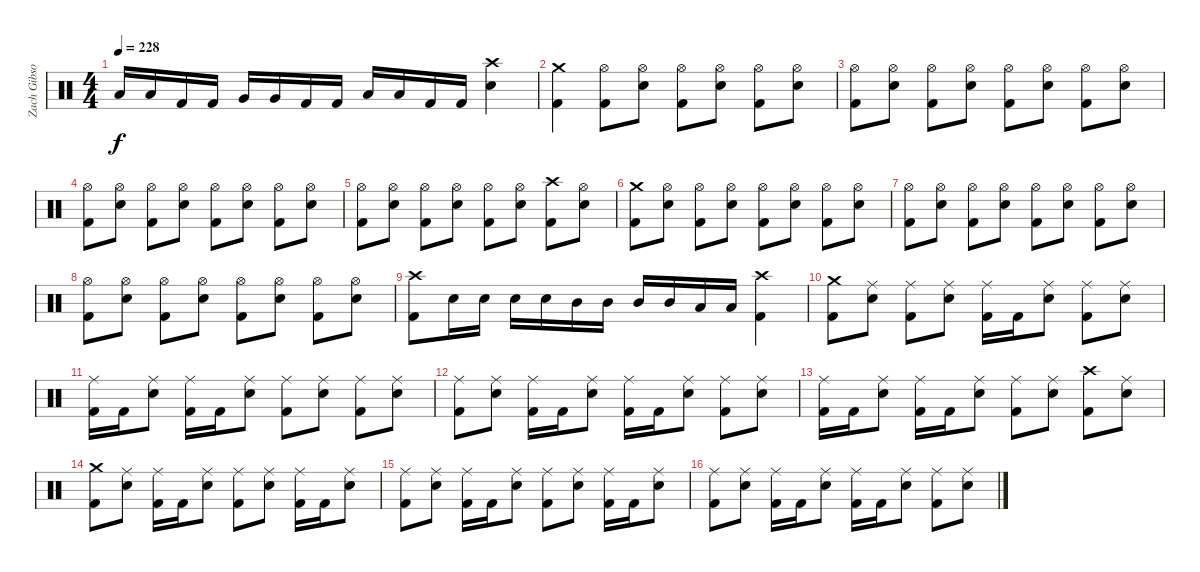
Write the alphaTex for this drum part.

\track ("Zach Gibson (Ex-Drums)" "Zach Gibso") {instrument percussion}
\staff {score}
\articulation defaults
\ts (4 4)
\tempo 228
\clef neutral
\ks c "Low Tom (hit)".16{dy f} "Low Tom (hit)".16 "Kick (hit) 2".16 "Kick (hit) 2".16 "Very Low Tom (hit)".16 "Very Low Tom (hit)".16 "Kick (hit) 2".16 "Kick (hit) 2".16 "Low Floor Tom (hit)".16 "Low Floor Tom (hit)".16 "Kick (hit) 2".16 "Kick (hit) 2".16
("Crash high (hit)" "Snare (hit) 2").4 |
("Crash medium (hit)" "Kick (hit) 2").4 ("Hi-Hat (open)" "Kick (hit) 2").8 ("Hi-Hat (open)" "Snare (hit) 2").8 ("Hi-Hat (open)" "Kick (hit) 2").8 ("Hi-Hat (open)" "Snare (hit) 2").8 ("Hi-Hat (open)" "Kick (hit) 2").8 ("Hi-Hat (open)" "Snare (hit) 2").8 |
("Hi-Hat (open)" "Kick (hit) 2").8 ("Hi-Hat (open)" "Snare (hit) 2").8 ("Hi-Hat (open)" "Kick (hit) 2").8 ("Hi-Hat (open)" "Snare (hit) 2").8 ("Hi-Hat (open)" "Kick (hit) 2").8 ("Hi-Hat (open)" "Snare (hit) 2").8 ("Hi-Hat (open)" "Kick (hit) 2").8 ("Hi-Hat (open)" "Snare (hit) 2").8 |
("Hi-Hat (open)" "Kick (hit) 2").8 ("Hi-Hat (open)" "Snare (hit) 2").8 ("Hi-Hat (open)" "Kick (hit) 2").8 ("Hi-Hat (open)" "Snare (hit) 2").8 ("Hi-Hat (open)" "Kick (hit) 2").8 ("Hi-Hat (open)" "Snare (hit) 2").8 ("Hi-Hat (open)" "Kick (hit) 2").8 ("Hi-Hat (open)" "Snare (hit) 2").8 |
("Hi-Hat (open)" "Kick (hit) 2").8 ("Hi-Hat (open)" "Snare (hit) 2").8 ("Hi-Hat (open)" "Kick (hit) 2").8 ("Hi-Hat (open)" "Snare (hit) 2").8 ("Hi-Hat (open)" "Kick (hit) 2").8 ("Hi-Hat (open)" "Snare (hit) 2").8 ("Crash high (hit)" "Kick (hit) 2").8 ("Hi-Hat (open)" "Snare (hit) 2").8 |
("Crash medium (hit)" "Kick (hit) 2").8 ("Hi-Hat (open)" "Snare (hit) 2").8 ("Hi-Hat (open)" "Kick (hit) 2").8 ("Hi-Hat (open)" "Snare (hit) 2").8 ("Hi-Hat (open)" "Kick (hit) 2").8 ("Hi-Hat (open)" "Snare (hit) 2").8 ("Hi-Hat (open)" "Kick (hit) 2").8 ("Hi-Hat (open)" "Snare (hit) 2").8 |
("Hi-Hat (open)" "Kick (hit) 2").8 ("Hi-Hat (open)" "Snare (hit) 2").8 ("Hi-Hat (open)" "Kick (hit) 2").8 ("Hi-Hat (open)" "Snare (hit) 2").8 ("Hi-Hat (open)" "Kick (hit) 2").8 ("Hi-Hat (open)" "Snare (hit) 2").8 ("Hi-Hat (open)" "Kick (hit) 2").8 ("Hi-Hat (open)" "Snare (hit) 2").8 |
("Hi-Hat (open)" "Kick (hit) 2").8 ("Hi-Hat (open)" "Snare (hit) 2").8 ("Hi-Hat (open)" "Kick (hit) 2").8 ("Hi-Hat (open)" "Snare (hit) 2").8 ("Hi-Hat (open)" "Kick (hit) 2").8 ("Hi-Hat (open)" "Snare (hit) 2").8 ("Hi-Hat (open)" "Kick (hit) 2").8 ("Hi-Hat (open)" "Snare (hit) 2").8 |
("Crash high (hit)" "Kick (hit) 2").8 "Snare (hit) 2".16 "Snare (hit) 2".16 "Snare (hit) 2".16 "Snare (hit) 2".16 "Mid Tom (hit)".16 "Mid Tom (hit)".16 "Mid Tom (hit)".16 "Mid Tom (hit)".16 "Low Tom (hit)".16 "Low Tom (hit)".16 ("Crash high (hit)" "Kick (hit) 2").4 |
("Crash medium (hit)" "Kick (hit) 2").8 ("Ride (middle)" "Snare (hit) 2").8 ("Ride (middle)" "Kick (hit) 2").8 ("Ride (middle)" "Snare (hit) 2").8 ("Ride (middle)" "Kick (hit) 2").16 "Kick (hit) 2".16 ("Ride (middle)" "Snare (hit) 2").8 ("Ride (middle)" "Kick (hit) 2").8 ("Ride (middle)" "Snare (hit) 2").8 |
("Ride (middle)" "Kick (hit) 2").16 "Kick (hit) 2".16 ("Ride (middle)" "Snare (hit) 2").8 ("Ride (middle)" "Kick (hit) 2").16 "Kick (hit) 2".16 ("Ride (middle)" "Snare (hit) 2").8 ("Ride (middle)" "Kick (hit) 2").8 ("Ride (middle)" "Snare (hit) 2").8 ("Ride (middle)" "Kick (hit) 2").8 ("Ride (middle)" "Snare (hit) 2").8 |
("Ride (middle)" "Kick (hit) 2").8 ("Ride (middle)" "Snare (hit) 2").8 ("Ride (middle)" "Kick (hit) 2").16 "Kick (hit) 2".16 ("Ride (middle)" "Snare (hit) 2").8 ("Ride (middle)" "Kick (hit) 2").16 "Kick (hit) 2".16 ("Ride (middle)" "Snare (hit) 2").8 ("Ride (middle)" "Kick (hit) 2").8 ("Ride (middle)" "Snare (hit) 2").8 |
("Ride (middle)" "Kick (hit) 2").16 "Kick (hit) 2".16 ("Ride (middle)" "Snare (hit) 2").8 ("Ride (middle)" "Kick (hit) 2").16 "Kick (hit) 2".16 ("Ride (middle)" "Snare (hit) 2").8 ("Ride (middle)" "Kick (hit) 2").8 ("Ride (middle)" "Snare (hit) 2").8 ("Crash high (hit)" "Kick (hit) 2").8 ("Ride (middle)" "Snare (hit) 2").8 |
("Crash medium (hit)" "Kick (hit) 2").8 ("Ride (middle)" "Snare (hit) 2").8 ("Ride (middle)" "Kick (hit) 2").16 "Kick (hit) 2".16 ("Ride (middle)" "Snare (hit) 2").8 ("Ride (middle)" "Kick (hit) 2").8 ("Ride (middle)" "Snare (hit) 2").8 ("Ride (middle)" "Kick (hit) 2").16 "Kick (hit) 2".16 ("Ride (middle)" "Snare (hit) 2").8 |
("Ride (middle)" "Kick (hit) 2").8 ("Ride (middle)" "Snare (hit) 2").8 ("Ride (middle)" "Kick (hit) 2").16 "Kick (hit) 2".16 ("Ride (middle)" "Snare (hit) 2").8 ("Ride (middle)" "Kick (hit) 2").8 ("Ride (middle)" "Snare (hit) 2").8 ("Ride (middle)" "Kick (hit) 2").16 "Kick (hit) 2".16 ("Ride (middle)" "Snare (hit) 2").8 |
("Ride (middle)" "Kick (hit) 2").8 ("Ride (middle)" "Snare (hit) 2").8 ("Ride (middle)" "Kick (hit) 2").16 "Kick (hit) 2".16 ("Ride (middle)" "Snare (hit) 2").8 ("Ride (middle)" "Kick (hit) 2").16 "Kick (hit) 2".16 ("Ride (middle)" "Snare (hit) 2").8 ("Ride (middle)" "Kick (hit) 2").8 ("Ride (middle)" "Snare (hit) 2").8
